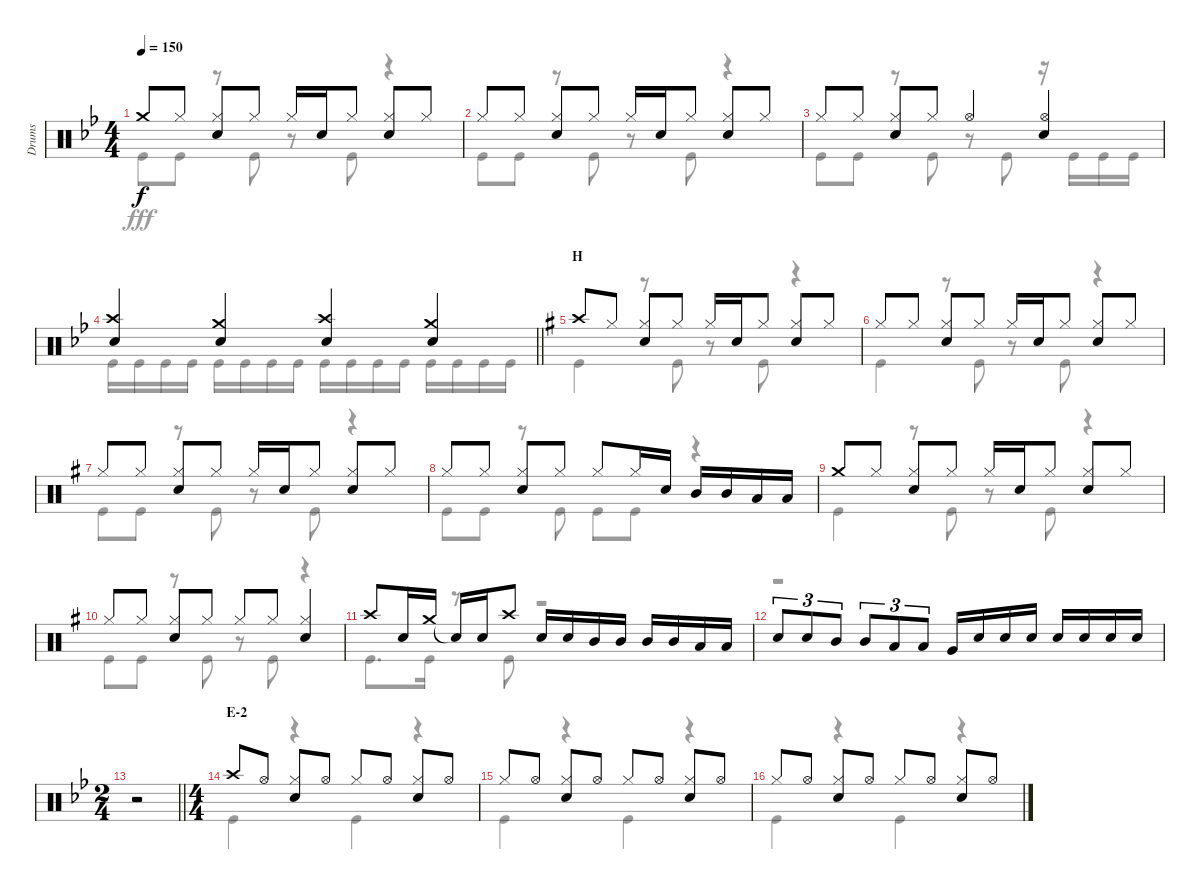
\track ("Drums" "Drums") {instrument percussion}
\staff {score}
\articulation defaults
\voice
\ts (4 4)
\tempo 150
\clef neutral
\ks bb "Crash medium (hit)".8{dy f} "Hi-Hat (closed)".8
("Hi-Hat (closed)" "Snare (hit) 2").8 "Hi-Hat (closed)".8 "Hi-Hat (closed)".16 "Snare (hit) 2".16 "Hi-Hat (closed)".8 ("Hi-Hat (closed)" "Snare (hit) 2").8 "Hi-Hat (closed)".8 |
"Hi-Hat (closed)".8 "Hi-Hat (closed)".8 ("Hi-Hat (closed)" "Snare (hit) 2").8 "Hi-Hat (closed)".8 "Hi-Hat (closed)".16 "Snare (hit) 2".16 "Hi-Hat (closed)".8 ("Hi-Hat (closed)" "Snare (hit) 2").8 "Hi-Hat (closed)".8 |
"Hi-Hat (closed)".8 "Hi-Hat (closed)".8 ("Hi-Hat (closed)" "Snare (hit) 2").8 "Hi-Hat (closed)".8 "Hi-Hat (open)".4 ("Hi-Hat (open)" "Snare (hit) 2").4 |
\barLineRight lightlight
("Crash high (hit)" "Snare (hit) 2").4 ("Crash medium (hit)" "Snare (hit) 2").4 ("Crash high (hit)" "Snare (hit) 2").4 ("Crash medium (hit)" "Snare (hit) 2").4 |
\section ("" "H")
\ks g "Crash high (hit)".8 "Hi-Hat (closed)".8
("Hi-Hat (closed)" "Snare (hit) 2").8 "Hi-Hat (closed)".8 "Hi-Hat (closed)".16 "Snare (hit) 2".16 "Hi-Hat (closed)".8 ("Hi-Hat (closed)" "Snare (hit) 2").8 "Hi-Hat (closed)".8 |
"Hi-Hat (closed)".8 "Hi-Hat (closed)".8 ("Hi-Hat (closed)" "Snare (hit) 2").8 "Hi-Hat (closed)".8 "Hi-Hat (closed)".16 "Snare (hit) 2".16 "Hi-Hat (closed)".8 ("Hi-Hat (closed)" "Snare (hit) 2").8 "Hi-Hat (closed)".8 |
"Hi-Hat (closed)".8 "Hi-Hat (closed)".8 ("Hi-Hat (closed)" "Snare (hit) 2").8 "Hi-Hat (closed)".8 "Hi-Hat (closed)".16 "Snare (hit) 2".16 "Hi-Hat (closed)".8 ("Hi-Hat (closed)" "Snare (hit) 2").8 "Hi-Hat (closed)".8 |
"Hi-Hat (closed)".8 "Hi-Hat (closed)".8 ("Hi-Hat (closed)" "Snare (hit) 2").8 "Hi-Hat (closed)".8 "Hi-Hat (closed)".8 "Hi-Hat (closed)".16 "Snare (hit) 2".16 "Mid Tom (hit)".16 "Mid Tom (hit)".16 "Low Tom (hit)".16 "Low Tom (hit)".16 |
"Crash medium (hit)".8 "Hi-Hat (closed)".8 ("Hi-Hat (closed)" "Snare (hit) 2").8 "Hi-Hat (closed)".8 "Hi-Hat (closed)".16 "Snare (hit) 2".16 "Hi-Hat (closed)".8 ("Hi-Hat (closed)" "Snare (hit) 2").8 "Hi-Hat (closed)".8 |
"Hi-Hat (closed)".8 "Hi-Hat (closed)".8 ("Hi-Hat (closed)" "Snare (hit) 2").8 "Hi-Hat (closed)".8 "Hi-Hat (closed)".8 "Hi-Hat (closed)".8 ("Hi-Hat (closed)" "Snare (hit) 2").4 |
"Crash high (hit)".8 "Snare (hit) 2".16 "Crash medium (hit)".16 "Snare (hit)"{t}.16 "Snare (hit) 2".16 "Crash high (hit)".8 "Snare (hit) 2".16 "Snare (hit) 2".16 "Mid Tom (hit)".16 "Mid Tom (hit)".16 "Mid Tom (hit)".16 "Mid Tom (hit)".16 "Low Tom (hit)".16 "Low Tom (hit)".16 |
"Snare (hit) 2".8{tu (3 2)} "Snare (hit) 2".8{tu (3 2)} "Mid Tom (hit)".8{tu (3 2)} "Mid Tom (hit)".8{tu (3 2)} "Low Tom (hit)".8{tu (3 2)} "Low Tom (hit)".8{tu (3 2)} "Very Low Tom (hit)".16 "Snare (hit) 2".16 "Snare (hit) 2".16 "Snare (hit) 2".16 "Snare (hit) 2".16 "Snare (hit) 2".16 "Snare (hit) 2".16 "Snare (hit) 2".16 |
\ts (2 4)
\barLineRight lightlight
\ks bb
r.2 |
\ts (4 4)
\section ("" "E-2")
"Crash high (hit)".8 "Hi-Hat (open)".8 ("Hi-Hat (closed)" "Snare (hit) 2").8 "Hi-Hat (open)".8 "Hi-Hat (closed)".8 "Hi-Hat (open)".8 ("Hi-Hat (closed)" "Snare (hit) 2").8 "Hi-Hat (open)".8 |
"Hi-Hat (closed)".8 "Hi-Hat (open)".8 ("Hi-Hat (closed)" "Snare (hit) 2").8 "Hi-Hat (open)".8 "Hi-Hat (closed)".8 "Hi-Hat (open)".8 ("Hi-Hat (closed)" "Snare (hit) 2").8 "Hi-Hat (open)".8 |
"Hi-Hat (closed)".8 "Hi-Hat (open)".8 ("Hi-Hat (closed)" "Snare (hit) 2").8 "Hi-Hat (open)".8 "Hi-Hat (closed)".8 "Hi-Hat (open)".8 ("Hi-Hat (closed)" "Snare (hit) 2").8 "Hi-Hat (open)".8
\voice
\clef neutral
\ottava regular
\simile none
\ks bb "Kick (hit)".8{dy fff} "Kick (hit)".8
r.8 "Kick (hit)".8 r.8 "Kick (hit)".8 r.4 |
"Kick (hit)".8 "Kick (hit)".8 r.8 "Kick (hit)".8 r.8 "Kick (hit)".8 r.4 |
"Kick (hit)".8 "Kick (hit)".8 r.8 "Kick (hit)".8 r.8 "Kick (hit)".8 r.16 "Kick (hit)".16 "Kick (hit)".16 "Kick (hit)".16 |
\barLineRight lightlight "Kick (hit)".16 "Kick (hit)".16 "Kick (hit)".16 "Kick (hit)".16 "Kick (hit)".16 "Kick (hit)".16 "Kick (hit)".16 "Kick (hit)".16 "Kick (hit)".16 "Kick (hit)".16 "Kick (hit)".16 "Kick (hit)".16 "Kick (hit)".16 "Kick (hit)".16 "Kick (hit)".16 "Kick (hit)".16
|
\ks g "Kick (hit)".4
r.8 "Kick (hit)".8 r.8 "Kick (hit)".8 r.4 |
"Kick (hit)".4 r.8 "Kick (hit)".8 r.8 "Kick (hit)".8 r.4 |
"Kick (hit)".8 "Kick (hit)".8 r.8 "Kick (hit)".8 r.8 "Kick (hit)".8 r.4 |
"Kick (hit)".8 "Kick (hit)".8 r.8 "Kick (hit)".8 "Kick (hit)".8 "Kick (hit)".8 r.4 |
"Kick (hit)".4 r.8 "Kick (hit)".8 r.8 "Kick (hit)".8 r.4 |
"Kick (hit)".8 "Kick (hit)".8 r.8 "Kick (hit)".8 r.8 "Kick (hit)".8 r.4 |
"Kick (hit)".8{d} "Kick (hit)".16 r.8 "Kick (hit)".8 r.2 |
r.1 |
\barLineRight lightlight
\ks bb
r.2 |
"Kick (hit)".4 r.4 "Kick (hit)".4 r.4 |
"Kick (hit)".4 r.4 "Kick (hit)".4 r.4 |
"Kick (hit)".4 r.4 "Kick (hit)".4 r.4
